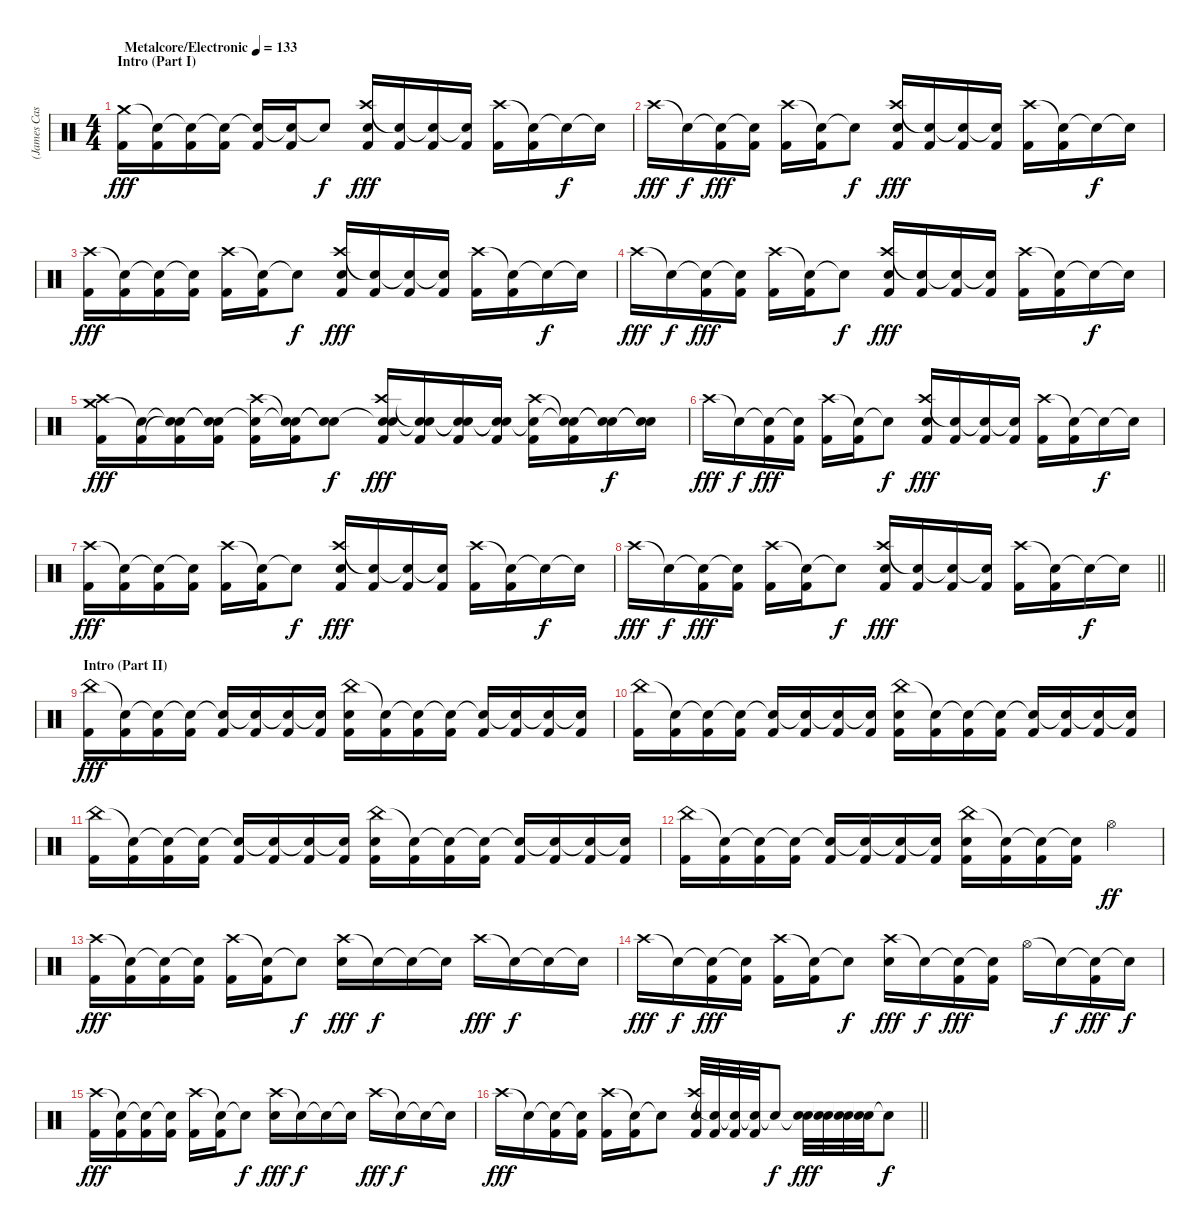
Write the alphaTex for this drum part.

\track ("(James Cassells) Drums" "(James Cas") {instrument percussion}
\staff {score}
\articulation defaults
\ts (4 4)
\section ("" "Intro (Part I)")
\tempo (133 "Metalcore/Electronic")
\clef neutral
\ks c
("Crash medium (hit)" "Kick (hit) 2").16{dy fff} ("Snare (hit)"{t} "Kick (hit) 2").16 ("Snare (hit)"{t} "Kick (hit) 2").16 ("Snare (hit)"{t} "Kick (hit) 2").16 ("Snare (hit)"{t} "Kick (hit) 2").16 ("Snare (hit)"{t} "Kick (hit) 2").16 "Snare (hit)"{t}.8{dy f} ("Crash high (hit)" "Electric Snare (hit)" "Kick (hit) 2").16{dy fff} ("Snare (hit)"{t} "Kick (hit) 2").16 ("Snare (hit)"{t} "Kick (hit) 2").16 ("Snare (hit)"{t} "Kick (hit) 2").16 ("Crash high (hit)" "Kick (hit) 2").16 ("Snare (hit)"{t} "Kick (hit) 2").16 "Snare (hit)"{t}.16{dy f} "Snare (hit)"{t}.16 |
"Crash high (hit)".16{dy fff} "Snare (hit)"{t}.16{dy f} ("Snare (hit)"{t} "Kick (hit) 2").16{dy fff} ("Snare (hit)"{t} "Kick (hit) 2").16 ("Crash high (hit)" "Kick (hit) 2").16 ("Snare (hit)"{t} "Kick (hit) 2").16 "Snare (hit)"{t}.8{dy f} ("Crash high (hit)" "Electric Snare (hit)" "Kick (hit) 2").16{dy fff} ("Snare (hit)"{t} "Kick (hit) 2").16 ("Snare (hit)"{t} "Kick (hit) 2").16 ("Snare (hit)"{t} "Kick (hit) 2").16 ("Crash high (hit)" "Kick (hit) 2").16 ("Snare (hit)"{t} "Kick (hit) 2").16 "Snare (hit)"{t}.16{dy f} "Snare (hit)"{t}.16 |
("Crash high (hit)" "Kick (hit) 2").16{dy fff} ("Snare (hit)"{t} "Kick (hit) 2").16 ("Snare (hit)"{t} "Kick (hit) 2").16 ("Snare (hit)"{t} "Kick (hit) 2").16 ("Crash high (hit)" "Kick (hit) 2").16 ("Snare (hit)"{t} "Kick (hit) 2").16 "Snare (hit)"{t}.8{dy f} ("Crash high (hit)" "Electric Snare (hit)" "Kick (hit) 2").16{dy fff} ("Snare (hit)"{t} "Kick (hit) 2").16 ("Snare (hit)"{t} "Kick (hit) 2").16 ("Snare (hit)"{t} "Kick (hit) 2").16 ("Crash high (hit)" "Kick (hit) 2").16 ("Snare (hit)"{t} "Kick (hit) 2").16 "Snare (hit)"{t}.16{dy f} "Snare (hit)"{t}.16 |
"Crash high (hit)".16{dy fff} "Snare (hit)"{t}.16{dy f} ("Snare (hit)"{t} "Kick (hit) 2").16{dy fff} ("Snare (hit)"{t} "Kick (hit) 2").16 ("Crash high (hit)" "Kick (hit) 2").16 ("Snare (hit)"{t} "Kick (hit) 2").16 "Snare (hit)"{t}.8{dy f} ("Crash high (hit)" "Electric Snare (hit)" "Kick (hit) 2").16{dy fff} ("Snare (hit)"{t} "Kick (hit) 2").16 ("Snare (hit)"{t} "Kick (hit) 2").16 ("Snare (hit)"{t} "Kick (hit) 2").16 ("Crash high (hit)" "Kick (hit) 2").16 ("Snare (hit)"{t} "Kick (hit) 2").16 "Snare (hit)"{t}.16{dy f} "Snare (hit)"{t}.16 |
("Crash medium (hit)" "Crash high (hit)" "Kick (hit) 2").16{dy fff} ("Snare (hit)"{t} "Kick (hit) 2").16 ("Snare (hit)"{t} "Snare (hit)"{t} "Kick (hit) 2").16 ("Snare (hit)"{t} "Snare (hit)"{t} "Kick (hit) 2").16 ("Snare (hit)"{t} "Crash high (hit)" "Kick (hit) 2").16 ("Snare (hit)"{t} "Snare (hit)"{t} "Kick (hit) 2").16 ("Snare (hit)"{t} "Snare (hit)"{t}).8{dy f} ("Snare (hit)"{t} "Crash high (hit)" "Electric Snare (hit)" "Kick (hit) 2").16{dy fff} ("Snare (hit)"{t} "Snare (hit)"{t} "Kick (hit) 2").16 ("Snare (hit)"{t} "Snare (hit)"{t} "Kick (hit) 2").16 ("Snare (hit)"{t} "Snare (hit)"{t} "Kick (hit) 2").16 ("Snare (hit)"{t} "Crash high (hit)" "Kick (hit) 2").16 ("Snare (hit)"{t} "Snare (hit)"{t} "Kick (hit) 2").16 ("Snare (hit)"{t} "Snare (hit)"{t}).16{dy f} ("Snare (hit)"{t} "Snare (hit)"{t}).16 |
"Crash high (hit)".16{dy fff} "Snare (hit)"{t}.16{dy f} ("Snare (hit)"{t} "Kick (hit) 2").16{dy fff} ("Snare (hit)"{t} "Kick (hit) 2").16 ("Crash high (hit)" "Kick (hit) 2").16 ("Snare (hit)"{t} "Kick (hit) 2").16 "Snare (hit)"{t}.8{dy f} ("Crash high (hit)" "Electric Snare (hit)" "Kick (hit) 2").16{dy fff} ("Snare (hit)"{t} "Kick (hit) 2").16 ("Snare (hit)"{t} "Kick (hit) 2").16 ("Snare (hit)"{t} "Kick (hit) 2").16 ("Crash high (hit)" "Kick (hit) 2").16 ("Snare (hit)"{t} "Kick (hit) 2").16 "Snare (hit)"{t}.16{dy f} "Snare (hit)"{t}.16 |
("Crash high (hit)" "Kick (hit) 2").16{dy fff} ("Snare (hit)"{t} "Kick (hit) 2").16 ("Snare (hit)"{t} "Kick (hit) 2").16 ("Snare (hit)"{t} "Kick (hit) 2").16 ("Crash high (hit)" "Kick (hit) 2").16 ("Snare (hit)"{t} "Kick (hit) 2").16 "Snare (hit)"{t}.8{dy f} ("Crash high (hit)" "Electric Snare (hit)" "Kick (hit) 2").16{dy fff} ("Snare (hit)"{t} "Kick (hit) 2").16 ("Snare (hit)"{t} "Kick (hit) 2").16 ("Snare (hit)"{t} "Kick (hit) 2").16 ("Crash high (hit)" "Kick (hit) 2").16 ("Snare (hit)"{t} "Kick (hit) 2").16 "Snare (hit)"{t}.16{dy f} "Snare (hit)"{t}.16 |
\barLineRight lightlight "Crash high (hit)".16{dy fff} "Snare (hit)"{t}.16{dy f}
("Snare (hit)"{t} "Kick (hit) 2").16{dy fff} ("Snare (hit)"{t} "Kick (hit) 2").16 ("Crash high (hit)" "Kick (hit) 2").16 ("Snare (hit)"{t} "Kick (hit) 2").16 "Snare (hit)"{t}.8{dy f} ("Crash high (hit)" "Electric Snare (hit)" "Kick (hit) 2").16{dy fff} ("Snare (hit)"{t} "Kick (hit) 2").16 ("Snare (hit)"{t} "Kick (hit) 2").16 ("Snare (hit)"{t} "Kick (hit) 2").16 ("Crash high (hit)" "Kick (hit) 2").16 ("Snare (hit)"{t} "Kick (hit) 2").16 "Snare (hit)"{t}.16{dy f} "Snare (hit)"{t}.16 |
\section ("" "Intro (Part II)")
("China (hit)" "Kick (hit) 2").16{dy fff} ("Snare (hit)"{t} "Kick (hit) 2").16 ("Snare (hit)"{t} "Kick (hit) 2").16 ("Snare (hit)"{t} "Kick (hit) 2").16 ("Snare (hit)"{t} "Kick (hit) 2").16 ("Snare (hit)"{t} "Kick (hit) 2").16 ("Snare (hit)"{t} "Kick (hit) 2").16 ("Snare (hit)"{t} "Kick (hit) 2").16 ("China (hit)" "Electric Snare (hit)" "Kick (hit) 2").16 ("Snare (hit)"{t} "Kick (hit) 2").16 ("Snare (hit)"{t} "Kick (hit) 2").16 ("Snare (hit)"{t} "Kick (hit) 2").16 ("Snare (hit)"{t} "Kick (hit) 2").16 ("Snare (hit)"{t} "Kick (hit) 2").16 ("Snare (hit)"{t} "Kick (hit) 2").16 ("Snare (hit)"{t} "Kick (hit) 2").16 |
("China (hit)" "Kick (hit) 2").16 ("Snare (hit)"{t} "Kick (hit) 2").16 ("Snare (hit)"{t} "Kick (hit) 2").16 ("Snare (hit)"{t} "Kick (hit) 2").16 ("Snare (hit)"{t} "Kick (hit) 2").16 ("Snare (hit)"{t} "Kick (hit) 2").16 ("Snare (hit)"{t} "Kick (hit) 2").16 ("Snare (hit)"{t} "Kick (hit) 2").16 ("China (hit)" "Electric Snare (hit)" "Kick (hit) 2").16 ("Snare (hit)"{t} "Kick (hit) 2").16 ("Snare (hit)"{t} "Kick (hit) 2").16 ("Snare (hit)"{t} "Kick (hit) 2").16 ("Snare (hit)"{t} "Kick (hit) 2").16 ("Snare (hit)"{t} "Kick (hit) 2").16 ("Snare (hit)"{t} "Kick (hit) 2").16 ("Snare (hit)"{t} "Kick (hit) 2").16 |
("China (hit)" "Kick (hit) 2").16 ("Snare (hit)"{t} "Kick (hit) 2").16 ("Snare (hit)"{t} "Kick (hit) 2").16 ("Snare (hit)"{t} "Kick (hit) 2").16 ("Snare (hit)"{t} "Kick (hit) 2").16 ("Snare (hit)"{t} "Kick (hit) 2").16 ("Snare (hit)"{t} "Kick (hit) 2").16 ("Snare (hit)"{t} "Kick (hit) 2").16 ("China (hit)" "Electric Snare (hit)" "Kick (hit) 2").16 ("Snare (hit)"{t} "Kick (hit) 2").16 ("Snare (hit)"{t} "Kick (hit) 2").16 ("Snare (hit)"{t} "Kick (hit) 2").16 ("Snare (hit)"{t} "Kick (hit) 2").16 ("Snare (hit)"{t} "Kick (hit) 2").16 ("Snare (hit)"{t} "Kick (hit) 2").16 ("Snare (hit)"{t} "Kick (hit) 2").16 |
("China (hit)" "Kick (hit) 2").16 ("Snare (hit)"{t} "Kick (hit) 2").16 ("Snare (hit)"{t} "Kick (hit) 2").16 ("Snare (hit)"{t} "Kick (hit) 2").16 ("Snare (hit)"{t} "Kick (hit) 2").16 ("Snare (hit)"{t} "Kick (hit) 2").16 ("Snare (hit)"{t} "Kick (hit) 2").16 ("Snare (hit)"{t} "Kick (hit) 2").16 ("China (hit)" "Electric Snare (hit)" "Kick (hit) 2").16 ("Snare (hit)"{t} "Kick (hit) 2").16 ("Snare (hit)"{t} "Kick (hit) 2").16 ("Snare (hit)"{t} "Kick (hit) 2").16 "Hi-Hat (open)".4{dy ff} |
("Crash high (hit)" "Kick (hit) 2").16{dy fff} ("Snare (hit)"{t} "Kick (hit) 2").16 ("Snare (hit)"{t} "Kick (hit) 2").16 ("Snare (hit)"{t} "Kick (hit) 2").16 ("Crash high (hit)" "Kick (hit) 2").16 ("Snare (hit)"{t} "Kick (hit) 2").16 "Snare (hit)"{t}.8{dy f} ("Crash high (hit)" "Electric Snare (hit)").16{dy fff} "Snare (hit)"{t}.16{dy f} "Snare (hit)"{t}.16 "Snare (hit)"{t}.16 "Crash high (hit)".16{dy fff} "Snare (hit)"{t}.16{dy f} "Snare (hit)"{t}.16 "Snare (hit)"{t}.16 |
"Crash high (hit)".16{dy fff} "Snare (hit)"{t}.16{dy f} ("Snare (hit)"{t} "Kick (hit) 2").16{dy fff} ("Snare (hit)"{t} "Kick (hit) 2").16 ("Crash high (hit)" "Kick (hit) 2").16 ("Snare (hit)"{t} "Kick (hit) 2").16 "Snare (hit)"{t}.8{dy f} ("Crash high (hit)" "Electric Snare (hit)").16{dy fff} "Snare (hit)"{t}.16{dy f} ("Snare (hit)"{t} "Kick (hit) 2").16{dy fff} ("Snare (hit)"{t} "Kick (hit) 2").16 "Hi-Hat (open)".16 "Snare (hit)"{t}.16{dy f} ("Snare (hit)"{t} "Kick (hit) 2").16{dy fff} "Snare (hit)"{t}.16{dy f} |
("Crash high (hit)" "Kick (hit) 2").16{dy fff} ("Snare (hit)"{t} "Kick (hit) 2").16 ("Snare (hit)"{t} "Kick (hit) 2").16 ("Snare (hit)"{t} "Kick (hit) 2").16 ("Crash high (hit)" "Kick (hit) 2").16 ("Snare (hit)"{t} "Kick (hit) 2").16 "Snare (hit)"{t}.8{dy f} ("Crash high (hit)" "Electric Snare (hit)").16{dy fff} "Snare (hit)"{t}.16{dy f} "Snare (hit)"{t}.16 "Snare (hit)"{t}.16 "Crash high (hit)".16{dy fff} "Snare (hit)"{t}.16{dy f} "Snare (hit)"{t}.16 "Snare (hit)"{t}.16 |
\barLineRight lightlight "Crash high (hit)".16{dy fff} "Snare (hit)"{t}.16
("Snare (hit)"{t} "Kick (hit) 2").16 ("Snare (hit)"{t} "Kick (hit) 2").16 ("Crash high (hit)" "Kick (hit) 2").16 ("Snare (hit)"{t} "Kick (hit) 2").16 "Snare (hit)"{t}.8 ("Crash high (hit)" "Electric Snare (hit)" "Kick (hit) 2").32 ("Snare (hit)"{t} "Kick (hit) 2").32 ("Snare (hit)"{t} "Kick (hit) 2").32 ("Snare (hit)"{t} "Kick (hit) 2").32 "Snare (hit)"{t}.8{dy f} ("Snare (hit)"{t} "Electric Snare (hit)").32{dy fff} ("Snare (hit)"{t} "Electric Snare (hit)").32 ("Snare (hit)"{t} "Electric Snare (hit)").32 ("Snare (hit)"{t} "Electric Snare (hit)").32 "Snare (hit)"{t}.8{dy f}
